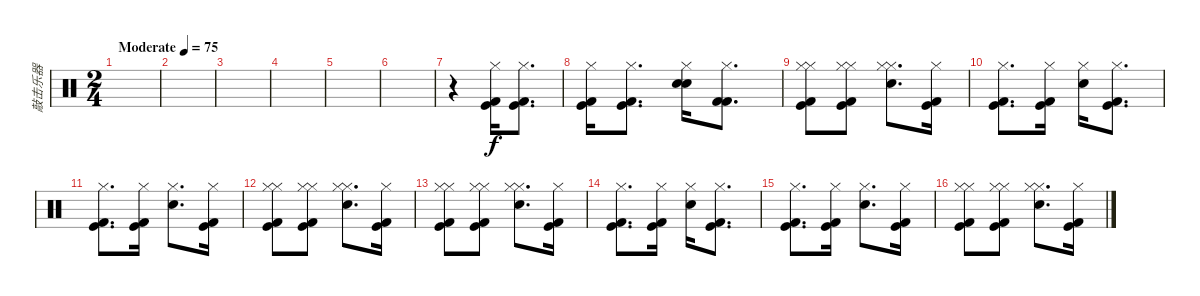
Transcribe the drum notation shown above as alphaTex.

\track ("敲击乐器" "敲击乐器") {instrument percussion}
\staff {score}
\articulation defaults
\ts (2 4)
\tempo (75 "Moderate")
\clef neutral
\ks c
|
|
|
|
|
|
r.4 ("Kick (hit) 2" "Kick (hit)" "Hi-Hat (closed)").16 ("Kick (hit) 2" "Kick (hit)" "Hi-Hat (closed)").8{d} |
("Kick (hit) 2" "Kick (hit)" "Hi-Hat (closed)").16 ("Kick (hit) 2" "Kick (hit)" "Hi-Hat (closed)").8{d} ("Hand Clap (hit)" "Snare (hit) 2" "Hi-Hat (closed)").16 ("Kick (hit) 2" "Kick (hit) 2" "Hi-Hat (closed)").8{d} |
("Kick (hit) 2" "Hi-Hat (closed)" "Kick (hit)" "Hi-Hat (closed)").8 ("Hi-Hat (closed)" "Kick (hit) 2" "Kick (hit)" "Hi-Hat (closed)").8 ("Hi-Hat (closed)" "Snare (hit) 2" "Hi-Hat (closed)").8{d} ("Hi-Hat (closed)" "Kick (hit)" "Kick (hit) 2").16 |
("Kick (hit) 2" "Hi-Hat (closed)" "Kick (hit)").8{d} ("Hi-Hat (closed)" "Kick (hit) 2" "Kick (hit)").16 ("Hi-Hat (closed)" "Snare (hit) 2").16 ("Hi-Hat (closed)" "Kick (hit)" "Kick (hit) 2").8{d} |
("Kick (hit) 2" "Hi-Hat (closed)" "Kick (hit)").8{d} ("Hi-Hat (closed)" "Kick (hit) 2" "Kick (hit)").16 ("Hi-Hat (closed)" "Snare (hit) 2").8{d} ("Hi-Hat (closed)" "Kick (hit)" "Kick (hit) 2").16 |
("Kick (hit) 2" "Hi-Hat (closed)" "Kick (hit)" "Hi-Hat (closed)").8 ("Hi-Hat (closed)" "Kick (hit) 2" "Kick (hit)" "Hi-Hat (closed)").8 ("Hi-Hat (closed)" "Snare (hit) 2" "Hi-Hat (closed)").8{d} ("Hi-Hat (closed)" "Kick (hit)" "Kick (hit) 2").16 |
("Kick (hit) 2" "Hi-Hat (closed)" "Kick (hit)" "Hi-Hat (closed)").8 ("Hi-Hat (closed)" "Kick (hit) 2" "Kick (hit)" "Hi-Hat (closed)").8 ("Hi-Hat (closed)" "Snare (hit) 2" "Hi-Hat (closed)").8{d} ("Hi-Hat (closed)" "Kick (hit)" "Kick (hit) 2").16 |
("Kick (hit) 2" "Hi-Hat (closed)" "Kick (hit)").8{d} ("Hi-Hat (closed)" "Kick (hit) 2" "Kick (hit)").16 ("Hi-Hat (closed)" "Snare (hit) 2").16 ("Hi-Hat (closed)" "Kick (hit)" "Kick (hit) 2").8{d} |
("Kick (hit) 2" "Hi-Hat (closed)" "Kick (hit)").8{d} ("Hi-Hat (closed)" "Kick (hit) 2" "Kick (hit)").16 ("Hi-Hat (closed)" "Snare (hit) 2").8{d} ("Hi-Hat (closed)" "Kick (hit)" "Kick (hit) 2").16 |
("Kick (hit) 2" "Hi-Hat (closed)" "Kick (hit)" "Hi-Hat (closed)").8 ("Hi-Hat (closed)" "Kick (hit) 2" "Kick (hit)" "Hi-Hat (closed)").8 ("Hi-Hat (closed)" "Snare (hit) 2" "Hi-Hat (closed)").8{d} ("Hi-Hat (closed)" "Kick (hit)" "Kick (hit) 2").16
